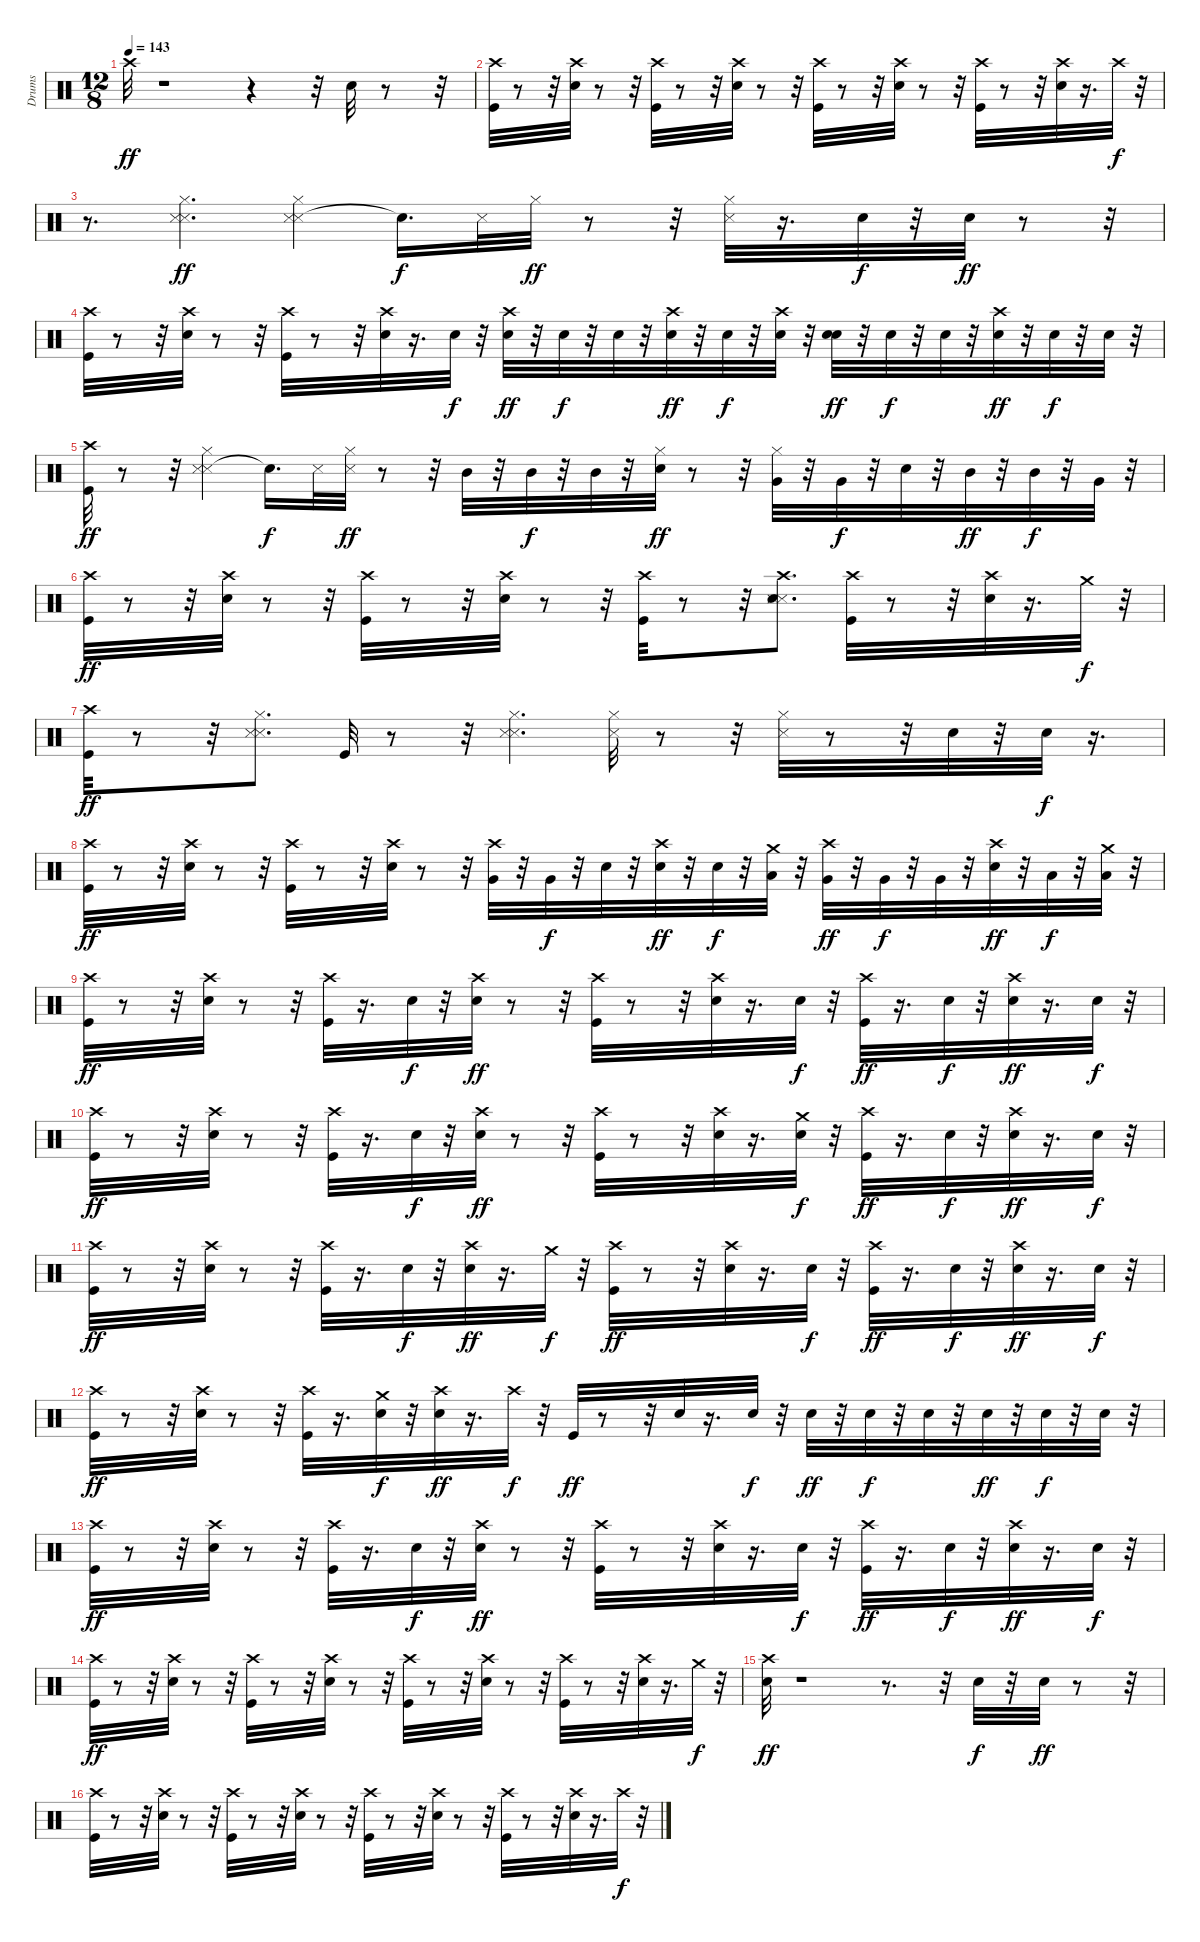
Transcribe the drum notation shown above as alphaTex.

\track ("Drums" "Drums") {instrument percussion}
\staff {score}
\articulation defaults
\ts (12 8)
\tempo 143
\clef neutral
\ks c "Crash high (hit)".32{dy ff}
r.1 r.4 r.32 "Electric Snare (hit)".32 r.8 r.32 |
("Crash high (hit)" "Kick (hit)").32 r.8 r.32 ("Crash high (hit)" "Snare (hit) 2").32 r.8 r.32 ("Crash high (hit)" "Kick (hit)").32 r.8 r.32 ("Crash high (hit)" "Snare (hit) 2").32 r.8 r.32 ("Crash high (hit)" "Kick (hit)").32 r.8 r.32 ("Crash high (hit)" "Snare (hit) 2").32 r.8 r.32 ("Crash high (hit)" "Kick (hit)").32 r.8 r.32 ("Crash high (hit)" "Snare (hit) 2").32 r.16{d} "Crash high (hit)".32{dy f} r.32 |
r.8{d} ("Metronome (hit)" "Metronome (hit)" "Hi-Hat (closed)").4{d dy ff} ("Metronome (hit)" "Metronome (hit)" "Hi-Hat (closed)").4 "Snare (hit)"{t}.16{d dy f} "Metronome (hit)".32 "Hi-Hat (closed)".32{dy ff} r.8 r.32 ("Hi-Hat (closed)" "Metronome (hit)").32 r.16{d} "Snare (hit) 2".32{dy f} r.32 "Snare (hit) 2".32{dy ff} r.8 r.32 |
("Crash high (hit)" "Kick (hit)").32 r.8 r.32 ("Crash high (hit)" "Snare (hit) 2").32 r.8 r.32 ("Crash high (hit)" "Kick (hit)").32 r.8 r.32 ("Crash high (hit)" "Snare (hit) 2").32 r.16{d} "Snare (hit) 2".32{dy f} r.32 ("Electric Snare (hit)" "Crash high (hit)").32{dy ff} r.32 "Snare (hit) 2".32{dy f} r.32 "Snare (hit) 2".32 r.32 ("Snare (hit) 2" "Crash high (hit)").32{dy ff} r.32 "Snare (hit) 2".32{dy f} r.32 ("Snare (hit) 2" "Crash high (hit)").32 r.32 ("Snare (hit) 2" "Electric Snare (hit)").32{dy ff} r.32 "Snare (hit) 2".32{dy f} r.32 "Snare (hit) 2".32 r.32 ("Snare (hit) 2" "Crash high (hit)").32{dy ff} r.32 "Snare (hit) 2".32{dy f} r.32 "Snare (hit) 2".32 r.32 |
("Kick (hit)" "Crash high (hit)").32{dy ff} r.8 r.32 ("Metronome (hit)" "Metronome (hit)" "Hi-Hat (closed)").4 "Snare (hit)"{t}.16{d dy f} "Metronome (hit)".32 ("Metronome (hit)" "Hi-Hat (closed)").32{dy ff} r.8 r.32 "Mid Tom (hit)".32 r.32 "Mid Tom (hit)".32{dy f} r.32 "Mid Tom (hit)".32 r.32 ("Hi-Hat (closed)" "Electric Snare (hit)").32{dy ff} r.8 r.32 ("Hi-Hat (closed)" "Very Low Tom (hit)").32 r.32 "Very Low Tom (hit)".32{dy f} r.32 "Electric Snare (hit)".32 r.32 "Mid Tom (hit)".32{dy ff} r.32 "Mid Tom (hit)".32{dy f} r.32 "Very Low Tom (hit)".32 r.32 |
("Crash high (hit)" "Kick (hit)").32{dy ff} r.8 r.32 ("Crash high (hit)" "Snare (hit) 2").32 r.8 r.32 ("Crash high (hit)" "Kick (hit)").32 r.8 r.32 ("Crash high (hit)" "Snare (hit) 2").32 r.8 r.32 ("Crash high (hit)" "Kick (hit)").32 r.8 r.32 ("Metronome (hit)" "Metronome (hit)" "Crash high (hit)" "Snare (hit) 2").8{d} ("Crash high (hit)" "Kick (hit)").32 r.8 r.32 ("Crash high (hit)" "Snare (hit) 2").32 r.16{d} "Crash medium (hit)".32{dy f} r.32 |
("Kick (hit)" "Crash high (hit)").32{dy ff} r.8 r.32 ("Metronome (hit)" "Metronome (hit)" "Hi-Hat (closed)").8{d} "Kick (hit)".32 r.8 r.32 ("Metronome (hit)" "Metronome (hit)" "Hi-Hat (closed)").4{d} ("Metronome (hit)" "Hi-Hat (closed)").32 r.8 r.32 ("Hi-Hat (closed)" "Metronome (hit)").32 r.8 r.32 "Snare (hit) 2".32 r.32 "Snare (hit) 2".32{dy f} r.16{d} |
("Crash high (hit)" "Kick (hit)").32{dy ff} r.8 r.32 ("Crash high (hit)" "Snare (hit) 2").32 r.8 r.32 ("Crash high (hit)" "Kick (hit)").32 r.8 r.32 ("Crash high (hit)" "Snare (hit) 2").32 r.8 r.32 ("Very Low Tom (hit)" "Crash high (hit)").32 r.32 "Very Low Tom (hit)".32{dy f} r.32 "Snare (hit) 2".32 r.32 ("Snare (hit) 2" "Crash high (hit)").32{dy ff} r.32 "Snare (hit) 2".32{dy f} r.32 ("Crash medium (hit)" "Low Tom (hit)").32 r.32 ("Very Low Tom (hit)" "Crash high (hit)").32{dy ff} r.32 "Very Low Tom (hit)".32{dy f} r.32 "Very Low Tom (hit)".32 r.32 ("Crash high (hit)" "Snare (hit) 2").32{dy ff} r.32 "Low Tom (hit)".32{dy f} r.32 ("Crash medium (hit)" "Low Tom (hit)").32 r.32 |
("Crash high (hit)" "Kick (hit)").32{dy ff} r.8 r.32 ("Crash high (hit)" "Snare (hit) 2").32 r.8 r.32 ("Crash high (hit)" "Kick (hit)").32 r.16{d} "Snare (hit) 2".32{dy f} r.32 ("Crash high (hit)" "Snare (hit) 2").32{dy ff} r.8 r.32 ("Crash high (hit)" "Kick (hit)").32 r.8 r.32 ("Crash high (hit)" "Snare (hit) 2").32 r.16{d} "Snare (hit) 2".32{dy f} r.32 ("Crash high (hit)" "Kick (hit)").32{dy ff} r.16{d} "Snare (hit) 2".32{dy f} r.32 ("Crash high (hit)" "Snare (hit) 2").32{dy ff} r.16{d} "Snare (hit) 2".32{dy f} r.32 |
("Crash high (hit)" "Kick (hit)").32{dy ff} r.8 r.32 ("Crash high (hit)" "Snare (hit) 2").32 r.8 r.32 ("Crash high (hit)" "Kick (hit)").32 r.16{d} "Snare (hit) 2".32{dy f} r.32 ("Crash high (hit)" "Snare (hit) 2").32{dy ff} r.8 r.32 ("Crash high (hit)" "Kick (hit)").32 r.8 r.32 ("Crash high (hit)" "Snare (hit) 2").32 r.16{d} ("Crash medium (hit)" "Snare (hit) 2").32{dy f} r.32 ("Crash high (hit)" "Kick (hit)").32{dy ff} r.16{d} "Snare (hit) 2".32{dy f} r.32 ("Crash high (hit)" "Snare (hit) 2").32{dy ff} r.16{d} "Snare (hit) 2".32{dy f} r.32 |
("Crash high (hit)" "Kick (hit)").32{dy ff} r.8 r.32 ("Crash high (hit)" "Snare (hit) 2").32 r.8 r.32 ("Crash high (hit)" "Kick (hit)").32 r.16{d} "Snare (hit) 2".32{dy f} r.32 ("Crash high (hit)" "Snare (hit) 2").32{dy ff} r.16{d} "Crash medium (hit)".32{dy f} r.32 ("Crash high (hit)" "Kick (hit)").32{dy ff} r.8 r.32 ("Crash high (hit)" "Snare (hit) 2").32 r.16{d} "Snare (hit) 2".32{dy f} r.32 ("Crash high (hit)" "Kick (hit)").32{dy ff} r.16{d} "Snare (hit) 2".32{dy f} r.32 ("Crash high (hit)" "Snare (hit) 2").32{dy ff} r.16{d} "Snare (hit) 2".32{dy f} r.32 |
("Crash high (hit)" "Kick (hit)").32{dy ff} r.8 r.32 ("Crash high (hit)" "Snare (hit) 2").32 r.8 r.32 ("Crash high (hit)" "Kick (hit)").32 r.16{d} ("Crash medium (hit)" "Snare (hit) 2").32{dy f} r.32 ("Crash high (hit)" "Snare (hit) 2").32{dy ff} r.16{d} "Crash high (hit)".32{dy f} r.32 "Kick (hit)".32{dy ff} r.8 r.32 "Snare (hit) 2".32 r.16{d} "Electric Snare (hit)".32{dy f} r.32 "Snare (hit) 2".32{dy ff} r.32 "Snare (hit) 2".32{dy f} r.32 "Snare (hit) 2".32 r.32 "Snare (hit) 2".32{dy ff} r.32 "Snare (hit) 2".32{dy f} r.32 "Snare (hit) 2".32 r.32 |
("Crash high (hit)" "Kick (hit)").32{dy ff} r.8 r.32 ("Crash high (hit)" "Snare (hit) 2").32 r.8 r.32 ("Crash high (hit)" "Kick (hit)").32 r.16{d} "Snare (hit) 2".32{dy f} r.32 ("Crash high (hit)" "Snare (hit) 2").32{dy ff} r.8 r.32 ("Crash high (hit)" "Kick (hit)").32 r.8 r.32 ("Crash high (hit)" "Snare (hit) 2").32 r.16{d} "Snare (hit) 2".32{dy f} r.32 ("Crash high (hit)" "Kick (hit)").32{dy ff} r.16{d} "Snare (hit) 2".32{dy f} r.32 ("Crash high (hit)" "Snare (hit) 2").32{dy ff} r.16{d} "Snare (hit) 2".32{dy f} r.32 |
("Crash high (hit)" "Kick (hit)").32{dy ff} r.8 r.32 ("Crash high (hit)" "Snare (hit) 2").32 r.8 r.32 ("Crash high (hit)" "Kick (hit)").32 r.8 r.32 ("Crash high (hit)" "Snare (hit) 2").32 r.8 r.32 ("Crash high (hit)" "Kick (hit)").32 r.8 r.32 ("Crash high (hit)" "Snare (hit) 2").32 r.8 r.32 ("Crash high (hit)" "Kick (hit)").32 r.8 r.32 ("Crash high (hit)" "Snare (hit) 2").32 r.16{d} "Crash medium (hit)".32{dy f} r.32 |
("Snare (hit) 2" "Crash high (hit)").32{dy ff} r.1 r.8{d} r.32 "Snare (hit) 2".32{dy f} r.32 "Electric Snare (hit)".32{dy ff} r.8 r.32 |
("Crash high (hit)" "Kick (hit)").32 r.8 r.32 ("Crash high (hit)" "Snare (hit) 2").32 r.8 r.32 ("Crash high (hit)" "Kick (hit)").32 r.8 r.32 ("Crash high (hit)" "Snare (hit) 2").32 r.8 r.32 ("Crash high (hit)" "Kick (hit)").32 r.8 r.32 ("Crash high (hit)" "Snare (hit) 2").32 r.8 r.32 ("Crash high (hit)" "Kick (hit)").32 r.8 r.32 ("Crash high (hit)" "Snare (hit) 2").32 r.16{d} "Crash high (hit)".32{dy f} r.32
